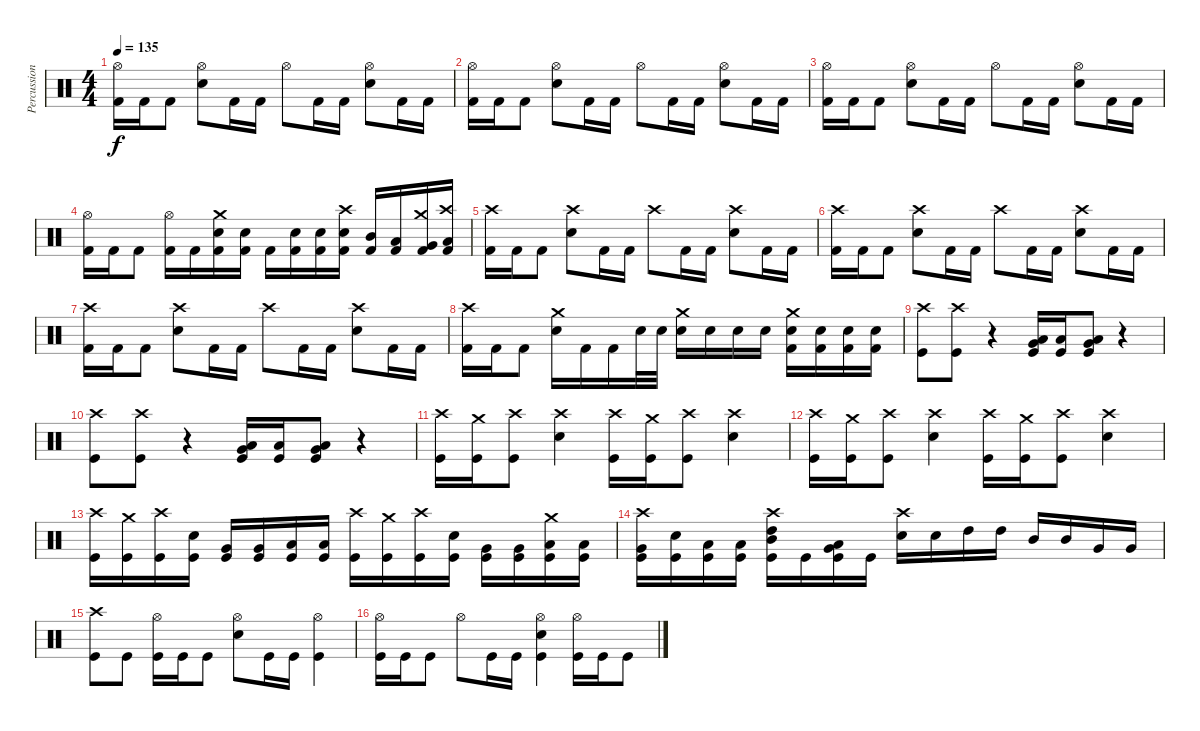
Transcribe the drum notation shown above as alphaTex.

\track ("Percussion" "Percussion") {instrument percussion}
\staff {score}
\articulation defaults
\ts (4 4)
\tempo 135
\clef neutral
\ks c
("Hi-Hat (open)" "Kick (hit) 2").16{dy f} "Kick (hit) 2".16 "Kick (hit) 2".8 ("Hi-Hat (open)" "Snare (hit) 2").8 "Kick (hit) 2".16 "Kick (hit) 2".16 "Hi-Hat (open)".8 "Kick (hit) 2".16 "Kick (hit) 2".16 ("Hi-Hat (open)" "Snare (hit) 2").8 "Kick (hit) 2".16 "Kick (hit) 2".16 |
("Hi-Hat (open)" "Kick (hit) 2").16 "Kick (hit) 2".16 "Kick (hit) 2".8 ("Hi-Hat (open)" "Snare (hit) 2").8 "Kick (hit) 2".16 "Kick (hit) 2".16 "Hi-Hat (open)".8 "Kick (hit) 2".16 "Kick (hit) 2".16 ("Hi-Hat (open)" "Snare (hit) 2").8 "Kick (hit) 2".16 "Kick (hit) 2".16 |
("Hi-Hat (open)" "Kick (hit) 2").16 "Kick (hit) 2".16 "Kick (hit) 2".8 ("Hi-Hat (open)" "Snare (hit) 2").8 "Kick (hit) 2".16 "Kick (hit) 2".16 "Hi-Hat (open)".8 "Kick (hit) 2".16 "Kick (hit) 2".16 ("Hi-Hat (open)" "Snare (hit) 2").8 "Kick (hit) 2".16 "Kick (hit) 2".16 |
("Hi-Hat (open)" "Kick (hit) 2").16 "Kick (hit) 2".16 "Kick (hit) 2".8 ("Hi-Hat (open)" "Kick (hit) 2").16 "Kick (hit) 2".16 ("Crash medium (hit)" "Snare (hit) 2" "Kick (hit) 2").16 ("Snare (hit) 2" "Kick (hit) 2").16 "Kick (hit) 2".16 ("Snare (hit) 2" "Kick (hit) 2").16 ("Snare (hit) 2" "Kick (hit) 2").16 ("Crash high (hit)" "Snare (hit) 2" "Kick (hit) 2").16 ("Mid Tom (hit)" "Kick (hit) 2").16 ("Low Tom (hit)" "Kick (hit) 2").16 ("Crash medium (hit)" "Very Low Tom (hit)" "Kick (hit) 2").16 ("Crash high (hit)" "Low Floor Tom (hit)" "Kick (hit) 2").16 |
("Crash high (hit)" "Kick (hit) 2").16 "Kick (hit) 2".16 "Kick (hit) 2".8 ("Crash high (hit)" "Snare (hit) 2").8 "Kick (hit) 2".16 "Kick (hit) 2".16 "Crash high (hit)".8 "Kick (hit) 2".16 "Kick (hit) 2".16 ("Crash high (hit)" "Snare (hit) 2").8 "Kick (hit) 2".16 "Kick (hit) 2".16 |
("Crash high (hit)" "Kick (hit) 2").16 "Kick (hit) 2".16 "Kick (hit) 2".8 ("Crash high (hit)" "Snare (hit) 2").8 "Kick (hit) 2".16 "Kick (hit) 2".16 "Crash high (hit)".8 "Kick (hit) 2".16 "Kick (hit) 2".16 ("Crash high (hit)" "Snare (hit) 2").8 "Kick (hit) 2".16 "Kick (hit) 2".16 |
("Crash high (hit)" "Kick (hit) 2").16 "Kick (hit) 2".16 "Kick (hit) 2".8 ("Crash high (hit)" "Snare (hit) 2").8 "Kick (hit) 2".16 "Kick (hit) 2".16 "Crash high (hit)".8 "Kick (hit) 2".16 "Kick (hit) 2".16 ("Crash high (hit)" "Snare (hit) 2").8 "Kick (hit) 2".16 "Kick (hit) 2".16 |
("Crash high (hit)" "Kick (hit) 2").16 "Kick (hit) 2".16 "Kick (hit) 2".8 ("Crash medium (hit)" "Snare (hit) 2").16 "Kick (hit) 2".16 "Kick (hit) 2".16 "Snare (hit) 2".32 "Snare (hit) 2".32 ("Snare (hit) 2" "Crash medium (hit)").16 "Snare (hit) 2".16 "Snare (hit) 2".16 "Snare (hit) 2".16 ("Snare (hit) 2" "Crash medium (hit)" "Kick (hit) 2").16 ("Snare (hit) 2" "Kick (hit) 2").16 ("Snare (hit) 2" "Kick (hit) 2").16 ("Snare (hit) 2" "Kick (hit) 2").16 |
("Kick (hit)" "Crash high (hit)").8 ("Crash high (hit)" "Kick (hit)").8 r.4 ("Kick (hit)" "Low Floor Tom (hit)" "Very Low Tom (hit)").16 ("Kick (hit)" "Low Floor Tom (hit)").16 ("Low Floor Tom (hit)" "Kick (hit)" "Very Low Tom (hit)").8 r.4 |
("Kick (hit)" "Crash high (hit)").8 ("Crash high (hit)" "Kick (hit)").8 r.4 ("Kick (hit)" "Low Floor Tom (hit)" "Very Low Tom (hit)").16 ("Kick (hit)" "Low Floor Tom (hit)").16 ("Low Floor Tom (hit)" "Kick (hit)" "Very Low Tom (hit)").8 r.4 |
("Kick (hit)" "Crash high (hit)").16 ("Kick (hit)" "Crash medium (hit)").16 ("Crash high (hit)" "Kick (hit)").8 ("Crash high (hit)" "Snare (hit) 2").4 ("Kick (hit)" "Crash high (hit)").16 ("Kick (hit)" "Crash medium (hit)").16 ("Crash high (hit)" "Kick (hit)").8 ("Crash high (hit)" "Snare (hit) 2").4 |
("Kick (hit)" "Crash high (hit)").16 ("Kick (hit)" "Crash medium (hit)").16 ("Crash high (hit)" "Kick (hit)").8 ("Crash high (hit)" "Snare (hit) 2").4 ("Kick (hit)" "Crash high (hit)").16 ("Kick (hit)" "Crash medium (hit)").16 ("Crash high (hit)" "Kick (hit)").8 ("Crash high (hit)" "Snare (hit) 2").4 |
("Kick (hit)" "Crash high (hit)").16 ("Kick (hit)" "Crash medium (hit)").16 ("Crash high (hit)" "Kick (hit)").16 ("Snare (hit) 2" "Kick (hit)").16 ("Very Low Tom (hit)" "Kick (hit)").16 ("Very Low Tom (hit)" "Kick (hit)").16 ("Low Floor Tom (hit)" "Kick (hit)").16 ("Low Floor Tom (hit)" "Kick (hit)").16 ("Crash high (hit)" "Kick (hit)").16 ("Crash medium (hit)" "Kick (hit)").16 ("Crash high (hit)" "Kick (hit)").16 ("Snare (hit) 2" "Kick (hit)").16 ("Very Low Tom (hit)" "Kick (hit)").16 ("Very Low Tom (hit)" "Kick (hit)").16 ("Low Floor Tom (hit)" "Crash medium (hit)" "Kick (hit)").16 ("Low Floor Tom (hit)" "Kick (hit)").16 |
("Kick (hit)" "Crash high (hit)" "Very Low Tom (hit)").16 ("Kick (hit)" "Snare (hit) 2").16 ("Low Floor Tom (hit)" "Kick (hit)").16 ("Kick (hit)" "Low Floor Tom (hit)").16 ("Kick (hit)" "Crash high (hit)" "High Tom (hit)" "Mid Tom (hit)").16 "Kick (hit)".16 ("Kick (hit)" "Very Low Tom (hit)" "Low Floor Tom (hit)").16 "Kick (hit)".16 ("Snare (hit) 2" "Crash high (hit)").16 "Snare (hit) 2".16 "High Tom (hit)".16 "High Tom (hit)".16 "Mid Tom (hit)".16 "Mid Tom (hit)".16 "Very Low Tom (hit)".16 "Very Low Tom (hit)".16 |
("Crash high (hit)" "Kick (hit)").8 "Kick (hit)".8 ("Kick (hit)" "Hi-Hat (open)").16 "Kick (hit)".16 "Kick (hit)".8 ("Snare (hit) 2" "Hi-Hat (open)").8 "Kick (hit)".16 "Kick (hit)".16 ("Kick (hit)" "Hi-Hat (open)").4 |
("Kick (hit)" "Hi-Hat (open)").16 "Kick (hit)".16 "Kick (hit)".8 "Hi-Hat (open)".8 "Kick (hit)".16 "Kick (hit)".16 ("Kick (hit)" "Snare (hit) 2" "Hi-Hat (open)").4 ("Kick (hit)" "Hi-Hat (open)").16 "Kick (hit)".16 "Kick (hit)".8
